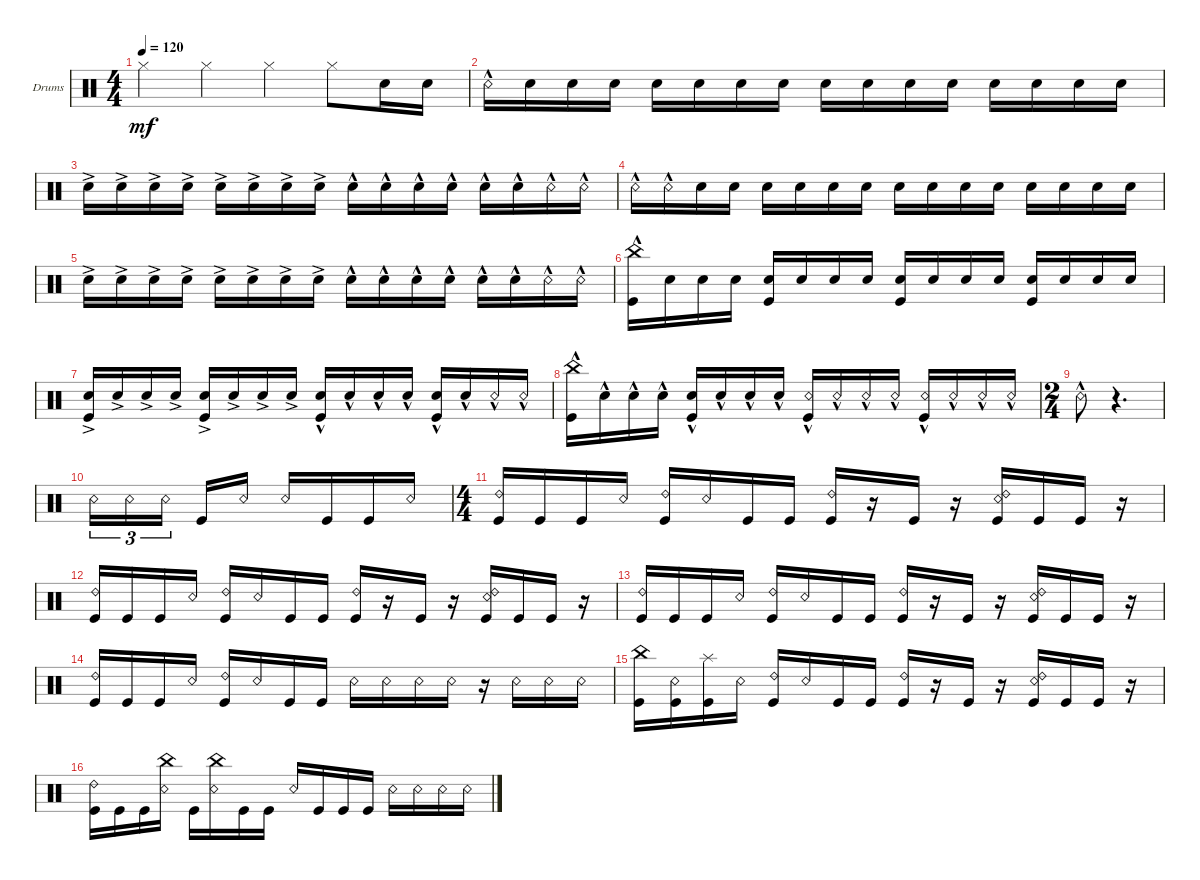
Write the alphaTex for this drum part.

\defaultSystemsLayout 4
\bracketExtendMode groupsimilarinstruments
\firstSystemTrackNameOrientation horizontal
\otherSystemsTrackNameOrientation horizontal
\track ("Drumkit" "Drums") {instrument percussion}
\staff {score}
\articulation defaults
\ts (4 4)
\scale
0.245206
\tempo 120
\accidentals auto
\clef neutral
\ottava regular
\simile none
\ks c "Hi-Hat (closed)".4{dy mf} "Hi-Hat (closed)".4 "Hi-Hat (closed)".4 "Hi-Hat (closed)".8 "Snare (hit) 2".16 "Snare (hit) 2".16
|
\scale
0.374026 "Snare (rim shot)"{hac}.16 "Snare (hit) 2".16 "Snare (hit) 2".16 "Snare (hit) 2".16 "Snare (hit) 2".16 "Snare (hit) 2".16 "Snare (hit) 2".16 "Snare (hit) 2".16 "Snare (hit) 2".16 "Snare (hit) 2".16 "Snare (hit) 2".16 "Snare (hit) 2".16 "Snare (hit) 2".16 "Snare (hit) 2".16 "Snare (hit) 2".16 "Snare (hit) 2".16 |
\scale
0.380069 "Snare (hit) 2"{ac}.16 "Snare (hit) 2"{ac}.16 "Snare (hit) 2"{ac}.16 "Snare (hit) 2"{ac}.16 "Snare (hit) 2"{ac}.16 "Snare (hit) 2"{ac}.16 "Snare (hit) 2"{ac}.16 "Snare (hit) 2"{ac}.16 "Snare (hit) 2"{hac}.16 "Snare (hit) 2"{hac}.16 "Snare (hit) 2"{hac}.16 "Snare (hit) 2"{hac}.16 "Snare (hit) 2"{hac}.16 "Snare (hit) 2"{hac}.16 "Snare (rim shot)"{hac}.16 "Snare (rim shot)"{hac}.16 |
"Snare (rim shot)"{hac}.16 "Snare (rim shot)"{hac}.16 "Snare (hit) 2".16 "Snare (hit) 2".16 "Snare (hit) 2".16 "Snare (hit) 2".16 "Snare (hit) 2".16 "Snare (hit) 2".16 "Snare (hit) 2".16 "Snare (hit) 2".16 "Snare (hit) 2".16 "Snare (hit) 2".16 "Snare (hit) 2".16 "Snare (hit) 2".16 "Snare (hit) 2".16 "Snare (hit) 2".16 |
"Snare (hit) 2"{ac}.16 "Snare (hit) 2"{ac}.16 "Snare (hit) 2"{ac}.16 "Snare (hit) 2"{ac}.16 "Snare (hit) 2"{ac}.16 "Snare (hit) 2"{ac}.16 "Snare (hit) 2"{ac}.16 "Snare (hit) 2"{ac}.16 "Snare (hit) 2"{hac}.16 "Snare (hit) 2"{hac}.16 "Snare (hit) 2"{hac}.16 "Snare (hit) 2"{hac}.16 "Snare (hit) 2"{hac}.16 "Snare (hit) 2"{hac}.16 "Snare (rim shot)"{hac}.16 "Snare (rim shot)"{hac}.16 |
("China (hit)" "Kick (hit)"{hac}).16 "Snare (hit) 2".16 "Snare (hit) 2".16 "Snare (hit) 2".16 ("Snare (hit) 2" "Kick (hit)").16 "Snare (hit) 2".16 "Snare (hit) 2".16 "Snare (hit) 2".16 ("Snare (hit) 2" "Kick (hit)").16 "Snare (hit) 2".16 "Snare (hit) 2".16 "Snare (hit) 2".16 ("Snare (hit) 2" "Kick (hit)").16 "Snare (hit) 2".16 "Snare (hit) 2".16 "Snare (hit) 2".16 |
("Snare (hit) 2"{ac} "Kick (hit)").16 "Snare (hit) 2"{ac}.16 "Snare (hit) 2"{ac}.16 "Snare (hit) 2"{ac}.16 ("Snare (hit) 2"{ac} "Kick (hit)").16 "Snare (hit) 2"{ac}.16 "Snare (hit) 2"{ac}.16 "Snare (hit) 2"{ac}.16 ("Snare (hit) 2"{hac} "Kick (hit)").16 "Snare (hit) 2"{hac}.16 "Snare (hit) 2"{hac}.16 "Snare (hit) 2"{hac}.16 ("Snare (hit) 2"{hac} "Kick (hit)").16 "Snare (hit) 2"{hac}.16 "Snare (rim shot)"{hac}.16 "Snare (rim shot)"{hac}.16 |
("China (hit)" "Kick (hit)"{hac}).16 "Snare (hit) 2"{hac}.16 "Snare (hit) 2"{hac}.16 "Snare (hit) 2"{hac}.16 ("Snare (hit) 2"{hac} "Kick (hit)"{hac}).16 "Snare (hit) 2"{hac}.16 "Snare (hit) 2"{hac}.16 "Snare (hit) 2"{hac}.16 ("Snare (rim shot)"{hac} "Kick (hit)"{hac}).16 "Snare (rim shot)"{hac}.16 "Snare (rim shot)"{hac}.16 "Snare (rim shot)"{hac}.16 ("Snare (rim shot)"{hac} "Kick (hit)"{hac}).16 "Snare (rim shot)"{hac}.16 "Snare (rim shot)"{hac}.16 "Snare (rim shot)"{hac}.16 |
\ts (2 4)
"Snare (rim shot)"{hac}.8 r.4{d} |
"Snare (rim shot)".16{tu (3 2)} "Snare (rim shot)".16{tu (3 2)} "Snare (rim shot)".16{tu (3 2)} "Kick (hit)".16 "Snare (rim shot)".16 "Snare (rim shot)".16 "Kick (hit)".16 "Kick (hit)".16 "Snare (rim shot)".16 |
\ts (4 4)
("Kick (hit)" "Ride (bell) 2").16 "Kick (hit)".16 "Kick (hit)".16 "Snare (rim shot)".16 ("Kick (hit)" "Ride (bell) 2").16 "Snare (rim shot)".16 "Kick (hit)".16 "Kick (hit)".16 ("Kick (hit)" "Ride (bell) 2").16 r.16 "Kick (hit)".16 r.16 ("Kick (hit)" "Ride (bell) 2" "Snare (rim shot)").16 "Kick (hit)".16 "Kick (hit)".16 r.16 |
("Kick (hit)" "Ride (bell) 2").16 "Kick (hit)".16 "Kick (hit)".16 "Snare (rim shot)".16 ("Kick (hit)" "Ride (bell) 2").16 "Snare (rim shot)".16 "Kick (hit)".16 "Kick (hit)".16 ("Kick (hit)" "Ride (bell) 2").16 r.16 "Kick (hit)".16 r.16 ("Kick (hit)" "Ride (bell) 2" "Snare (rim shot)").16 "Kick (hit)".16 "Kick (hit)".16 r.16 |
("Kick (hit)" "Ride (bell) 2").16 "Kick (hit)".16 "Kick (hit)".16 "Snare (rim shot)".16 ("Kick (hit)" "Ride (bell) 2").16 "Snare (rim shot)".16 "Kick (hit)".16 "Kick (hit)".16 ("Kick (hit)" "Ride (bell) 2").16 r.16 "Kick (hit)".16 r.16 ("Kick (hit)" "Ride (bell) 2" "Snare (rim shot)").16 "Kick (hit)".16 "Kick (hit)".16 r.16 |
("Kick (hit)" "Ride (bell) 2").16 "Kick (hit)".16 "Kick (hit)".16 "Snare (rim shot)".16 ("Kick (hit)" "Ride (bell) 2").16 "Snare (rim shot)".16 "Kick (hit)".16 "Kick (hit)".16 "Snare (rim shot)".16 "Snare (rim shot)".16 "Snare (rim shot)".16 "Snare (rim shot)".16 r.16 "Snare (rim shot)".16 "Snare (rim shot)".16 "Snare (rim shot)".16 |
("Kick (hit)" "China (hit)").16 ("Kick (hit)" "Snare (rim shot)").16 ("Kick (hit)" "Splash (hit)").16 "Snare (rim shot)".16 ("Kick (hit)" "Ride (bell) 2").16 "Snare (rim shot)".16 "Kick (hit)".16 "Kick (hit)".16 ("Kick (hit)" "Ride (bell) 2").16 r.16 "Kick (hit)".16 r.16 ("Kick (hit)" "Snare (rim shot)" "Ride (bell) 2").16 "Kick (hit)".16 "Kick (hit)".16 r.16 |
("Kick (hit)" "Ride (bell) 2").16 "Kick (hit)".16 "Kick (hit)".16 ("Snare (rim shot)" "China (hit)").16 "Kick (hit)".16 ("Snare (rim shot)" "China (hit)").16 "Kick (hit)".16 "Kick (hit)".16 "Snare (rim shot)".16 "Kick (hit)".16 "Kick (hit)".16 "Kick (hit)".16 "Snare (rim shot)".16 "Snare (rim shot)".16 "Snare (rim shot)".16 "Snare (rim shot)".16
